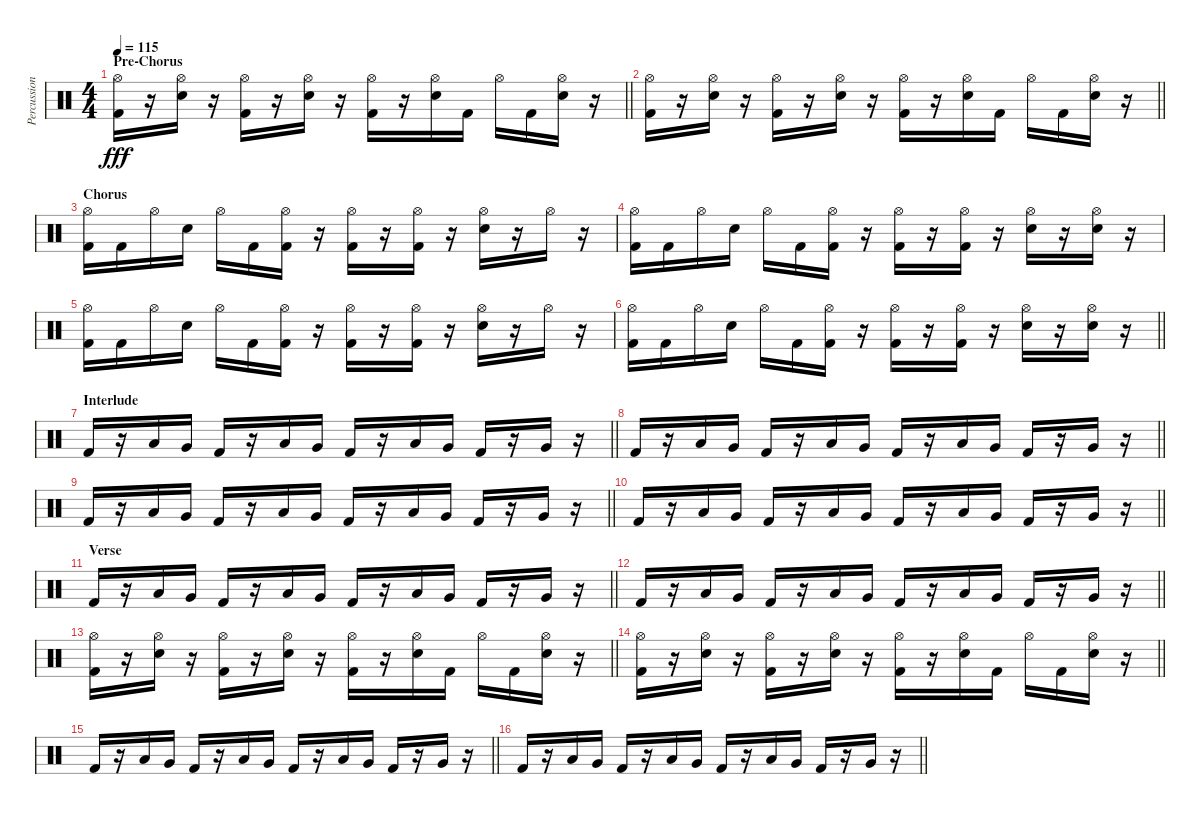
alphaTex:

\track ("Percussion 2" "Percussion") {instrument percussion}
\staff {score}
\articulation defaults
\ts (4 4)
\section ("" "Pre-Chorus")
\tempo 115
\clef neutral
\barLineRight lightlight
\ks c
("Hi-Hat (open)" "Kick (hit) 2").16{dy fff} r.16 ("Hi-Hat (open)" "Electric Snare (hit)").16 r.16 ("Hi-Hat (open)" "Kick (hit) 2").16 r.16 ("Hi-Hat (open)" "Electric Snare (hit)").16 r.16 ("Hi-Hat (open)" "Kick (hit) 2").16 r.16 ("Hi-Hat (open)" "Electric Snare (hit)").16 "Kick (hit) 2".16 "Hi-Hat (open)".16 "Kick (hit) 2".16 ("Hi-Hat (open)" "Electric Snare (hit)").16 r.16 |
\barLineRight lightlight
("Hi-Hat (open)" "Kick (hit) 2").16 r.16 ("Hi-Hat (open)" "Electric Snare (hit)").16 r.16 ("Hi-Hat (open)" "Kick (hit) 2").16 r.16 ("Hi-Hat (open)" "Electric Snare (hit)").16 r.16 ("Hi-Hat (open)" "Kick (hit) 2").16 r.16 ("Hi-Hat (open)" "Electric Snare (hit)").16 "Kick (hit) 2".16 "Hi-Hat (open)".16 "Kick (hit) 2".16 ("Hi-Hat (open)" "Electric Snare (hit)").16 r.16 |
\section ("" "Chorus")
("Hi-Hat (open)" "Kick (hit) 2").16 "Kick (hit) 2".16 "Hi-Hat (open)".16 "Electric Snare (hit)".16 "Hi-Hat (open)".16 "Kick (hit) 2".16 ("Hi-Hat (open)" "Kick (hit) 2").16 r.16 ("Hi-Hat (open)" "Kick (hit) 2").16 r.16 ("Hi-Hat (open)" "Kick (hit) 2").16 r.16 ("Hi-Hat (open)" "Electric Snare (hit)").16 r.16 "Hi-Hat (open)".16 r.16 |
("Hi-Hat (open)" "Kick (hit) 2").16 "Kick (hit) 2".16 "Hi-Hat (open)".16 "Electric Snare (hit)".16 "Hi-Hat (open)".16 "Kick (hit) 2".16 ("Hi-Hat (open)" "Kick (hit) 2").16 r.16 ("Hi-Hat (open)" "Kick (hit) 2").16 r.16 ("Hi-Hat (open)" "Kick (hit) 2").16 r.16 ("Hi-Hat (open)" "Electric Snare (hit)").16 r.16 ("Hi-Hat (open)" "Electric Snare (hit)").16 r.16 |
("Hi-Hat (open)" "Kick (hit) 2").16 "Kick (hit) 2".16 "Hi-Hat (open)".16 "Electric Snare (hit)".16 "Hi-Hat (open)".16 "Kick (hit) 2".16 ("Hi-Hat (open)" "Kick (hit) 2").16 r.16 ("Hi-Hat (open)" "Kick (hit) 2").16 r.16 ("Hi-Hat (open)" "Kick (hit) 2").16 r.16 ("Hi-Hat (open)" "Electric Snare (hit)").16 r.16 "Hi-Hat (open)".16 r.16 |
\barLineRight lightlight
("Hi-Hat (open)" "Kick (hit) 2").16 "Kick (hit) 2".16 "Hi-Hat (open)".16 "Electric Snare (hit)".16 "Hi-Hat (open)".16 "Kick (hit) 2".16 ("Hi-Hat (open)" "Kick (hit) 2").16 r.16 ("Hi-Hat (open)" "Kick (hit) 2").16 r.16 ("Hi-Hat (open)" "Kick (hit) 2").16 r.16 ("Hi-Hat (open)" "Electric Snare (hit)").16 r.16 ("Hi-Hat (open)" "Electric Snare (hit)").16 r.16 |
\section ("" "Interlude")
\barLineRight lightlight "Kick (hit) 2".16
r.16 "Low Floor Tom (hit)".16 "Very Low Tom (hit)".16 "Kick (hit) 2".16 r.16 "Low Floor Tom (hit)".16 "Very Low Tom (hit)".16 "Kick (hit) 2".16 r.16 "Low Floor Tom (hit)".16 "Very Low Tom (hit)".16 "Kick (hit) 2".16 r.16 "Very Low Tom (hit)".16 r.16 |
\barLineRight lightlight "Kick (hit) 2".16
r.16 "Low Floor Tom (hit)".16 "Very Low Tom (hit)".16 "Kick (hit) 2".16 r.16 "Low Floor Tom (hit)".16 "Very Low Tom (hit)".16 "Kick (hit) 2".16 r.16 "Low Floor Tom (hit)".16 "Very Low Tom (hit)".16 "Kick (hit) 2".16 r.16 "Very Low Tom (hit)".16 r.16 |
\barLineRight lightlight "Kick (hit) 2".16
r.16 "Low Floor Tom (hit)".16 "Very Low Tom (hit)".16 "Kick (hit) 2".16 r.16 "Low Floor Tom (hit)".16 "Very Low Tom (hit)".16 "Kick (hit) 2".16 r.16 "Low Floor Tom (hit)".16 "Very Low Tom (hit)".16 "Kick (hit) 2".16 r.16 "Very Low Tom (hit)".16 r.16 |
\barLineRight lightlight "Kick (hit) 2".16
r.16 "Low Floor Tom (hit)".16 "Very Low Tom (hit)".16 "Kick (hit) 2".16 r.16 "Low Floor Tom (hit)".16 "Very Low Tom (hit)".16 "Kick (hit) 2".16 r.16 "Low Floor Tom (hit)".16 "Very Low Tom (hit)".16 "Kick (hit) 2".16 r.16 "Very Low Tom (hit)".16 r.16 |
\section ("" "Verse")
\barLineRight lightlight "Kick (hit) 2".16
r.16 "Low Floor Tom (hit)".16 "Very Low Tom (hit)".16 "Kick (hit) 2".16 r.16 "Low Floor Tom (hit)".16 "Very Low Tom (hit)".16 "Kick (hit) 2".16 r.16 "Low Floor Tom (hit)".16 "Very Low Tom (hit)".16 "Kick (hit) 2".16 r.16 "Very Low Tom (hit)".16 r.16 |
\barLineRight lightlight "Kick (hit) 2".16
r.16 "Low Floor Tom (hit)".16 "Very Low Tom (hit)".16 "Kick (hit) 2".16 r.16 "Low Floor Tom (hit)".16 "Very Low Tom (hit)".16 "Kick (hit) 2".16 r.16 "Low Floor Tom (hit)".16 "Very Low Tom (hit)".16 "Kick (hit) 2".16 r.16 "Very Low Tom (hit)".16 r.16 |
\barLineRight lightlight
("Hi-Hat (open)" "Kick (hit) 2").16 r.16 ("Hi-Hat (open)" "Electric Snare (hit)").16 r.16 ("Hi-Hat (open)" "Kick (hit) 2").16 r.16 ("Hi-Hat (open)" "Electric Snare (hit)").16 r.16 ("Hi-Hat (open)" "Kick (hit) 2").16 r.16 ("Hi-Hat (open)" "Electric Snare (hit)").16 "Kick (hit) 2".16 "Hi-Hat (open)".16 "Kick (hit) 2".16 ("Hi-Hat (open)" "Electric Snare (hit)").16 r.16 |
\barLineRight lightlight
("Hi-Hat (open)" "Kick (hit) 2").16 r.16 ("Hi-Hat (open)" "Electric Snare (hit)").16 r.16 ("Hi-Hat (open)" "Kick (hit) 2").16 r.16 ("Hi-Hat (open)" "Electric Snare (hit)").16 r.16 ("Hi-Hat (open)" "Kick (hit) 2").16 r.16 ("Hi-Hat (open)" "Electric Snare (hit)").16 "Kick (hit) 2".16 "Hi-Hat (open)".16 "Kick (hit) 2".16 ("Hi-Hat (open)" "Electric Snare (hit)").16 r.16 |
\barLineRight lightlight "Kick (hit) 2".16
r.16 "Low Floor Tom (hit)".16 "Very Low Tom (hit)".16 "Kick (hit) 2".16 r.16 "Low Floor Tom (hit)".16 "Very Low Tom (hit)".16 "Kick (hit) 2".16 r.16 "Low Floor Tom (hit)".16 "Very Low Tom (hit)".16 "Kick (hit) 2".16 r.16 "Very Low Tom (hit)".16 r.16 |
\barLineRight lightlight "Kick (hit) 2".16
r.16 "Low Floor Tom (hit)".16 "Very Low Tom (hit)".16 "Kick (hit) 2".16 r.16 "Low Floor Tom (hit)".16 "Very Low Tom (hit)".16 "Kick (hit) 2".16 r.16 "Low Floor Tom (hit)".16 "Very Low Tom (hit)".16 "Kick (hit) 2".16 r.16 "Very Low Tom (hit)".16 r.16
